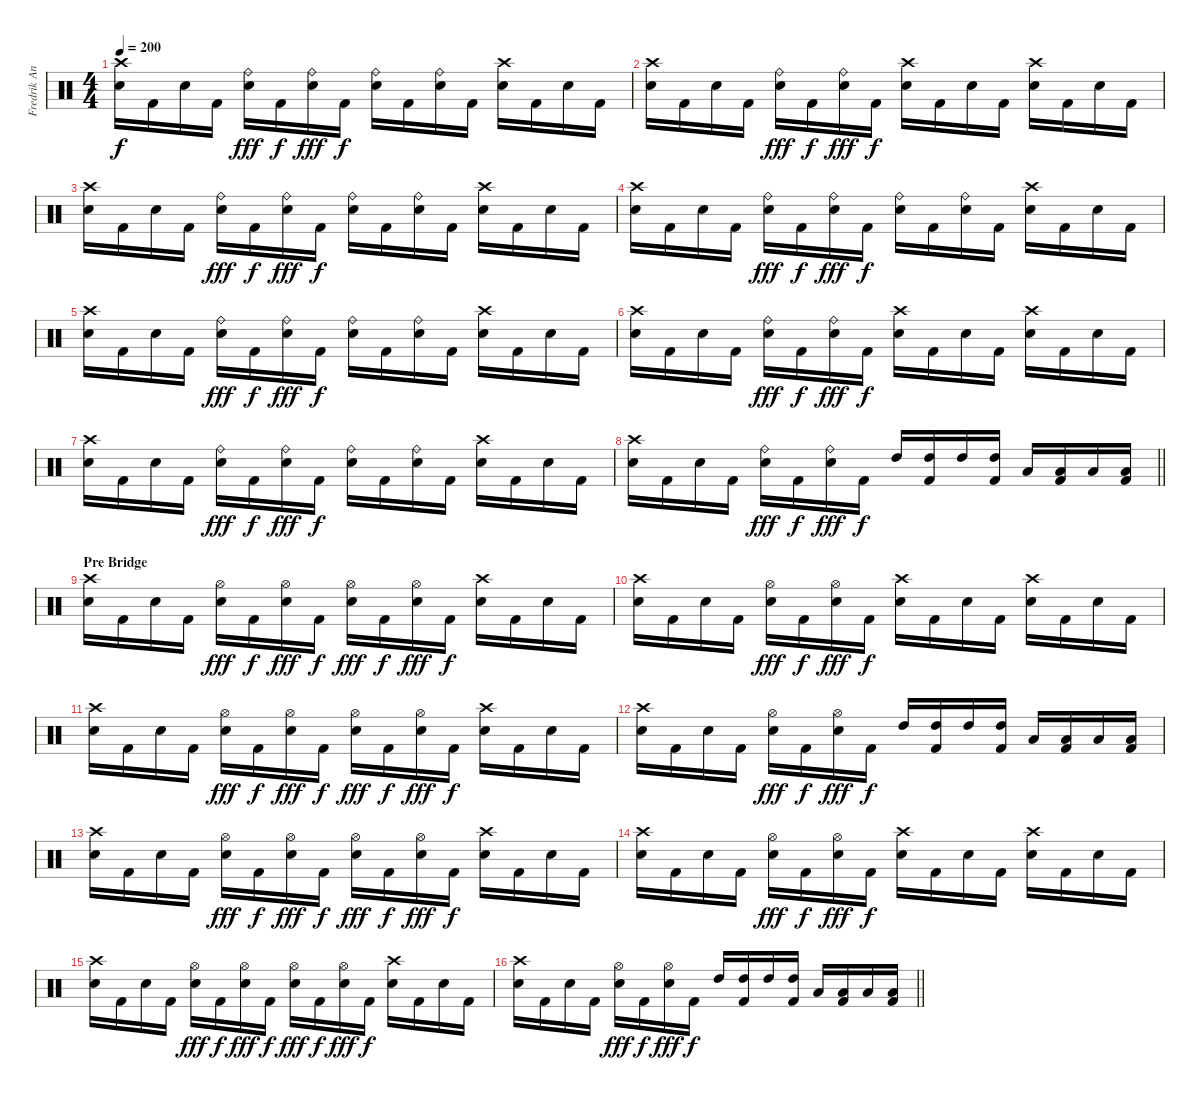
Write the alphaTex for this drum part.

\track ("Fredrik Andersson " "Fredrik An") {instrument percussion}
\staff {score}
\articulation defaults
\ts (4 4)
\tempo 200
\clef neutral
\ks c
("Crash high (hit)" "Snare (hit) 2").16{dy f} "Kick (hit) 2".16 "Snare (hit) 2".16 "Kick (hit) 2".16 ("Ride (bell)" "Snare (hit) 2").16{dy fff} "Kick (hit) 2".16{dy f} ("Ride (bell)" "Snare (hit) 2").16{dy fff} "Kick (hit) 2".16{dy f} ("Ride (bell)" "Snare (hit) 2").16 "Kick (hit) 2".16 ("Ride (bell)" "Snare (hit) 2").16 "Kick (hit) 2".16 ("Crash high (hit)" "Snare (hit) 2").16 "Kick (hit) 2".16 "Snare (hit) 2".16 "Kick (hit) 2".16 |
("Crash high (hit)" "Snare (hit) 2").16 "Kick (hit) 2".16 "Snare (hit) 2".16 "Kick (hit) 2".16 ("Ride (bell)" "Snare (hit) 2").16{dy fff} "Kick (hit) 2".16{dy f} ("Ride (bell)" "Snare (hit) 2").16{dy fff} "Kick (hit) 2".16{dy f} ("Crash high (hit)" "Snare (hit) 2").16 "Kick (hit) 2".16 "Snare (hit) 2".16 "Kick (hit) 2".16 ("Crash high (hit)" "Snare (hit) 2").16 "Kick (hit) 2".16 "Snare (hit) 2".16 "Kick (hit) 2".16 |
("Crash high (hit)" "Snare (hit) 2").16 "Kick (hit) 2".16 "Snare (hit) 2".16 "Kick (hit) 2".16 ("Ride (bell)" "Snare (hit) 2").16{dy fff} "Kick (hit) 2".16{dy f} ("Ride (bell)" "Snare (hit) 2").16{dy fff} "Kick (hit) 2".16{dy f} ("Ride (bell)" "Snare (hit) 2").16 "Kick (hit) 2".16 ("Ride (bell)" "Snare (hit) 2").16 "Kick (hit) 2".16 ("Crash high (hit)" "Snare (hit) 2").16 "Kick (hit) 2".16 "Snare (hit) 2".16 "Kick (hit) 2".16 |
("Crash high (hit)" "Snare (hit) 2").16 "Kick (hit) 2".16 "Snare (hit) 2".16 "Kick (hit) 2".16 ("Ride (bell)" "Snare (hit) 2").16{dy fff} "Kick (hit) 2".16{dy f} ("Ride (bell)" "Snare (hit) 2").16{dy fff} "Kick (hit) 2".16{dy f} ("Ride (bell)" "Snare (hit) 2").16 "Kick (hit) 2".16 ("Ride (bell)" "Snare (hit) 2").16 "Kick (hit) 2".16 ("Crash high (hit)" "Snare (hit) 2").16 "Kick (hit) 2".16 "Snare (hit) 2".16 "Kick (hit) 2".16 |
("Crash high (hit)" "Snare (hit) 2").16 "Kick (hit) 2".16 "Snare (hit) 2".16 "Kick (hit) 2".16 ("Ride (bell)" "Snare (hit) 2").16{dy fff} "Kick (hit) 2".16{dy f} ("Ride (bell)" "Snare (hit) 2").16{dy fff} "Kick (hit) 2".16{dy f} ("Ride (bell)" "Snare (hit) 2").16 "Kick (hit) 2".16 ("Ride (bell)" "Snare (hit) 2").16 "Kick (hit) 2".16 ("Crash high (hit)" "Snare (hit) 2").16 "Kick (hit) 2".16 "Snare (hit) 2".16 "Kick (hit) 2".16 |
("Crash high (hit)" "Snare (hit) 2").16 "Kick (hit) 2".16 "Snare (hit) 2".16 "Kick (hit) 2".16 ("Ride (bell)" "Snare (hit) 2").16{dy fff} "Kick (hit) 2".16{dy f} ("Ride (bell)" "Snare (hit) 2").16{dy fff} "Kick (hit) 2".16{dy f} ("Crash high (hit)" "Snare (hit) 2").16 "Kick (hit) 2".16 "Snare (hit) 2".16 "Kick (hit) 2".16 ("Crash high (hit)" "Snare (hit) 2").16 "Kick (hit) 2".16 "Snare (hit) 2".16 "Kick (hit) 2".16 |
("Crash high (hit)" "Snare (hit) 2").16 "Kick (hit) 2".16 "Snare (hit) 2".16 "Kick (hit) 2".16 ("Ride (bell)" "Snare (hit) 2").16{dy fff} "Kick (hit) 2".16{dy f} ("Ride (bell)" "Snare (hit) 2").16{dy fff} "Kick (hit) 2".16{dy f} ("Ride (bell)" "Snare (hit) 2").16 "Kick (hit) 2".16 ("Ride (bell)" "Snare (hit) 2").16 "Kick (hit) 2".16 ("Crash high (hit)" "Snare (hit) 2").16 "Kick (hit) 2".16 "Snare (hit) 2".16 "Kick (hit) 2".16 |
\barLineRight lightlight
("Crash high (hit)" "Snare (hit) 2").16 "Kick (hit) 2".16 "Snare (hit) 2".16 "Kick (hit) 2".16 ("Ride (bell)" "Snare (hit) 2").16{dy fff} "Kick (hit) 2".16{dy f} ("Ride (bell)" "Snare (hit) 2").16{dy fff} "Kick (hit) 2".16{dy f} "High Tom (hit)".16 ("High Tom (hit)" "Kick (hit) 2").16 "High Tom (hit)".16 ("High Tom (hit)" "Kick (hit) 2").16 "Low Tom (hit)".16 ("Low Tom (hit)" "Kick (hit) 2").16 "Low Tom (hit)".16 ("Low Tom (hit)" "Kick (hit) 2").16 |
\section ("" "Pre Bridge")
("Crash high (hit)" "Snare (hit) 2").16 "Kick (hit) 2".16 "Snare (hit) 2".16 "Kick (hit) 2".16 ("Hi-Hat (open)" "Snare (hit) 2").16{dy fff} "Kick (hit) 2".16{dy f} ("Hi-Hat (open)" "Snare (hit) 2").16{dy fff} "Kick (hit) 2".16{dy f} ("Hi-Hat (open)" "Snare (hit) 2").16{dy fff} "Kick (hit) 2".16{dy f} ("Hi-Hat (open)" "Snare (hit) 2").16{dy fff} "Kick (hit) 2".16{dy f} ("Crash high (hit)" "Snare (hit) 2").16 "Kick (hit) 2".16 "Snare (hit) 2".16 "Kick (hit) 2".16 |
("Crash high (hit)" "Snare (hit) 2").16 "Kick (hit) 2".16 "Snare (hit) 2".16 "Kick (hit) 2".16 ("Hi-Hat (open)" "Snare (hit) 2").16{dy fff} "Kick (hit) 2".16{dy f} ("Hi-Hat (open)" "Snare (hit) 2").16{dy fff} "Kick (hit) 2".16{dy f} ("Crash high (hit)" "Snare (hit) 2").16 "Kick (hit) 2".16 "Snare (hit) 2".16 "Kick (hit) 2".16 ("Crash high (hit)" "Snare (hit) 2").16 "Kick (hit) 2".16 "Snare (hit) 2".16 "Kick (hit) 2".16 |
("Crash high (hit)" "Snare (hit) 2").16 "Kick (hit) 2".16 "Snare (hit) 2".16 "Kick (hit) 2".16 ("Hi-Hat (open)" "Snare (hit) 2").16{dy fff} "Kick (hit) 2".16{dy f} ("Hi-Hat (open)" "Snare (hit) 2").16{dy fff} "Kick (hit) 2".16{dy f} ("Hi-Hat (open)" "Snare (hit) 2").16{dy fff} "Kick (hit) 2".16{dy f} ("Hi-Hat (open)" "Snare (hit) 2").16{dy fff} "Kick (hit) 2".16{dy f} ("Crash high (hit)" "Snare (hit) 2").16 "Kick (hit) 2".16 "Snare (hit) 2".16 "Kick (hit) 2".16 |
("Crash high (hit)" "Snare (hit) 2").16 "Kick (hit) 2".16 "Snare (hit) 2".16 "Kick (hit) 2".16 ("Hi-Hat (open)" "Snare (hit) 2").16{dy fff} "Kick (hit) 2".16{dy f} ("Hi-Hat (open)" "Snare (hit) 2").16{dy fff} "Kick (hit) 2".16{dy f} "High Tom (hit)".16 ("High Tom (hit)" "Kick (hit) 2").16 "High Tom (hit)".16 ("High Tom (hit)" "Kick (hit) 2").16 "Low Tom (hit)".16 ("Low Tom (hit)" "Kick (hit) 2").16 "Low Tom (hit)".16 ("Low Tom (hit)" "Kick (hit) 2").16 |
("Crash high (hit)" "Snare (hit) 2").16 "Kick (hit) 2".16 "Snare (hit) 2".16 "Kick (hit) 2".16 ("Hi-Hat (open)" "Snare (hit) 2").16{dy fff} "Kick (hit) 2".16{dy f} ("Hi-Hat (open)" "Snare (hit) 2").16{dy fff} "Kick (hit) 2".16{dy f} ("Hi-Hat (open)" "Snare (hit) 2").16{dy fff} "Kick (hit) 2".16{dy f} ("Hi-Hat (open)" "Snare (hit) 2").16{dy fff} "Kick (hit) 2".16{dy f} ("Crash high (hit)" "Snare (hit) 2").16 "Kick (hit) 2".16 "Snare (hit) 2".16 "Kick (hit) 2".16 |
("Crash high (hit)" "Snare (hit) 2").16 "Kick (hit) 2".16 "Snare (hit) 2".16 "Kick (hit) 2".16 ("Hi-Hat (open)" "Snare (hit) 2").16{dy fff} "Kick (hit) 2".16{dy f} ("Hi-Hat (open)" "Snare (hit) 2").16{dy fff} "Kick (hit) 2".16{dy f} ("Crash high (hit)" "Snare (hit) 2").16 "Kick (hit) 2".16 "Snare (hit) 2".16 "Kick (hit) 2".16 ("Crash high (hit)" "Snare (hit) 2").16 "Kick (hit) 2".16 "Snare (hit) 2".16 "Kick (hit) 2".16 |
("Crash high (hit)" "Snare (hit) 2").16 "Kick (hit) 2".16 "Snare (hit) 2".16 "Kick (hit) 2".16 ("Hi-Hat (open)" "Snare (hit) 2").16{dy fff} "Kick (hit) 2".16{dy f} ("Hi-Hat (open)" "Snare (hit) 2").16{dy fff} "Kick (hit) 2".16{dy f} ("Hi-Hat (open)" "Snare (hit) 2").16{dy fff} "Kick (hit) 2".16{dy f} ("Hi-Hat (open)" "Snare (hit) 2").16{dy fff} "Kick (hit) 2".16{dy f} ("Crash high (hit)" "Snare (hit) 2").16 "Kick (hit) 2".16 "Snare (hit) 2".16 "Kick (hit) 2".16 |
\barLineRight lightlight
("Crash high (hit)" "Snare (hit) 2").16 "Kick (hit) 2".16 "Snare (hit) 2".16 "Kick (hit) 2".16 ("Hi-Hat (open)" "Snare (hit) 2").16{dy fff} "Kick (hit) 2".16{dy f} ("Hi-Hat (open)" "Snare (hit) 2").16{dy fff} "Kick (hit) 2".16{dy f} "High Tom (hit)".16 ("High Tom (hit)" "Kick (hit) 2").16 "High Tom (hit)".16 ("High Tom (hit)" "Kick (hit) 2").16 "Low Tom (hit)".16 ("Low Tom (hit)" "Kick (hit) 2").16 "Low Tom (hit)".16 ("Low Tom (hit)" "Kick (hit) 2").16
